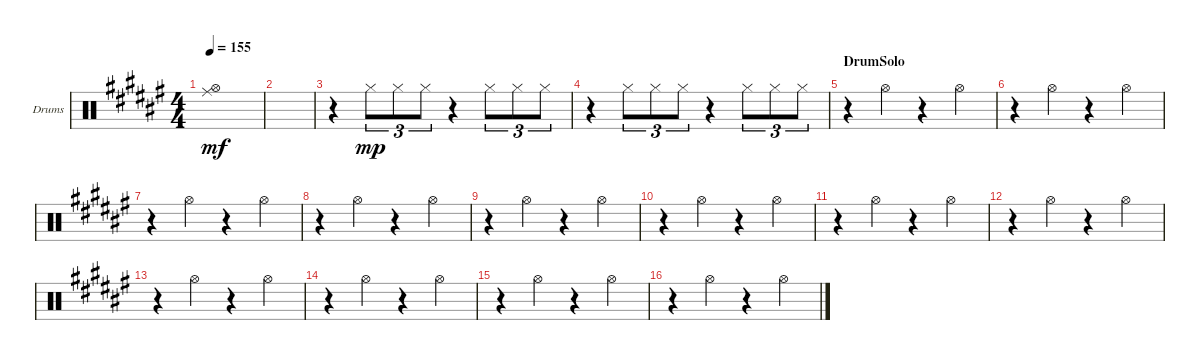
\bracketExtendMode groupsimilarinstruments
\firstSystemTrackNameOrientation horizontal
\otherSystemsTrackNameOrientation horizontal
\track ("Perc" "Drums") {instrument percussion}
\staff {score}
\articulation defaults
\ts (4 4)
\tempo 155
\clef neutral
\ks f#
("Ride (middle)" "Hi-Hat (open)").1{dy mf} |
|
r.4 "Hi-Hat (closed)".8{tu (3 2) dy mp} "Hi-Hat (closed)".8{tu (3 2)} "Hi-Hat (closed)".8{tu (3 2)} r.4 "Hi-Hat (closed)".8{tu (3 2)} "Hi-Hat (closed)".8{tu (3 2)} "Hi-Hat (closed)".8{tu (3 2)} |
r.4 "Hi-Hat (closed)".8{tu (3 2)} "Hi-Hat (closed)".8{tu (3 2)} "Hi-Hat (closed)".8{tu (3 2)} r.4 "Hi-Hat (closed)".8{tu (3 2)} "Hi-Hat (closed)".8{tu (3 2)} "Hi-Hat (closed)".8{tu (3 2)} |
\section ("" "DrumSolo")
r.4 "Hi-Hat (open)".4 r.4 "Hi-Hat (open)".4 |
r.4 "Hi-Hat (open)".4 r.4 "Hi-Hat (open)".4 |
r.4 "Hi-Hat (open)".4 r.4 "Hi-Hat (open)".4 |
r.4 "Hi-Hat (open)".4 r.4 "Hi-Hat (open)".4 |
r.4 "Hi-Hat (open)".4 r.4 "Hi-Hat (open)".4 |
r.4 "Hi-Hat (open)".4 r.4 "Hi-Hat (open)".4 |
r.4 "Hi-Hat (open)".4 r.4 "Hi-Hat (open)".4 |
r.4 "Hi-Hat (open)".4 r.4 "Hi-Hat (open)".4 |
r.4 "Hi-Hat (open)".4 r.4 "Hi-Hat (open)".4 |
r.4 "Hi-Hat (open)".4 r.4 "Hi-Hat (open)".4 |
r.4 "Hi-Hat (open)".4 r.4 "Hi-Hat (open)".4 |
r.4 "Hi-Hat (open)".4 r.4 "Hi-Hat (open)".4
